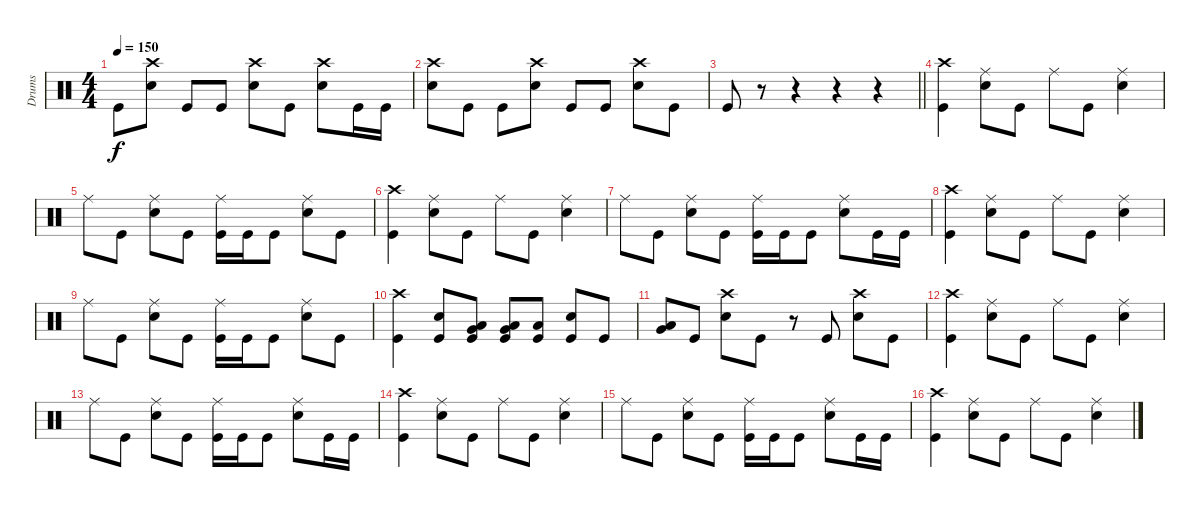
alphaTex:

\track ("Drums" "Drums") {instrument percussion}
\staff {score}
\articulation defaults
\ts (4 4)
\tempo 150
\clef neutral
\ks c "Kick (hit)".8{dy f}
("Snare (hit) 2" "Crash high (hit)").8 "Kick (hit)".8 "Kick (hit)".8 ("Crash high (hit)" "Snare (hit) 2").8 "Kick (hit)".8 ("Snare (hit) 2" "Crash high (hit)").8 "Kick (hit)".16 "Kick (hit)".16 |
("Crash high (hit)" "Snare (hit) 2").8 "Kick (hit)".8 "Kick (hit)".8 ("Snare (hit) 2" "Crash high (hit)").8 "Kick (hit)".8 "Kick (hit)".8 ("Crash high (hit)" "Snare (hit) 2").8 "Kick (hit)".8 |
\barLineRight lightlight "Kick (hit)".8
r.8 r.4 r.4 r.4 |
("Crash high (hit)" "Kick (hit)").4 ("Snare (hit) 2" "Ride (middle)").8 "Kick (hit)".8 "Ride (middle)".8 "Kick (hit)".8 ("Snare (hit) 2" "Ride (middle)").4 |
"Ride (middle)".8 "Kick (hit)".8 ("Snare (hit) 2" "Ride (middle)").8 "Kick (hit)".8 ("Ride (middle)" "Kick (hit)").16 "Kick (hit)".16 "Kick (hit)".8 ("Ride (middle)" "Snare (hit) 2").8 "Kick (hit)".8 |
("Crash high (hit)" "Kick (hit)").4 ("Snare (hit) 2" "Ride (middle)").8 "Kick (hit)".8 "Ride (middle)".8 "Kick (hit)".8 ("Snare (hit) 2" "Ride (middle)").4 |
"Ride (middle)".8 "Kick (hit)".8 ("Snare (hit) 2" "Ride (middle)").8 "Kick (hit)".8 ("Ride (middle)" "Kick (hit)").16 "Kick (hit)".16 "Kick (hit)".8 ("Ride (middle)" "Snare (hit) 2").8 "Kick (hit)".16 "Kick (hit)".16 |
("Crash high (hit)" "Kick (hit)").4 ("Snare (hit) 2" "Ride (middle)").8 "Kick (hit)".8 "Ride (middle)".8 "Kick (hit)".8 ("Snare (hit) 2" "Ride (middle)").4 |
"Ride (middle)".8 "Kick (hit)".8 ("Snare (hit) 2" "Ride (middle)").8 "Kick (hit)".8 ("Ride (middle)" "Kick (hit)").16 "Kick (hit)".16 "Kick (hit)".8 ("Ride (middle)" "Snare (hit) 2").8 "Kick (hit)".8 |
("Crash high (hit)" "Kick (hit)").4 ("Snare (hit) 2" "Kick (hit)").8 ("Very Low Tom (hit)" "Low Tom (hit)" "Kick (hit)").8 ("Low Floor Tom (hit)" "Very Low Tom (hit)" "Kick (hit)").8 ("Low Floor Tom (hit)" "Kick (hit)").8 ("Snare (hit) 2" "Kick (hit)").8 "Kick (hit)".8 |
("Low Tom (hit)" "Very Low Tom (hit)").8 "Kick (hit)".8 ("Snare (hit) 2" "Crash high (hit)").8 "Kick (hit)".8 r.8 "Kick (hit)".8 ("Snare (hit) 2" "Crash high (hit)").8 "Kick (hit)".8 |
("Crash high (hit)" "Kick (hit)").4 ("Snare (hit) 2" "Ride (middle)").8 "Kick (hit)".8 "Ride (middle)".8 "Kick (hit)".8 ("Snare (hit) 2" "Ride (middle)").4 |
"Ride (middle)".8 "Kick (hit)".8 ("Snare (hit) 2" "Ride (middle)").8 "Kick (hit)".8 ("Ride (middle)" "Kick (hit)").16 "Kick (hit)".16 "Kick (hit)".8 ("Ride (middle)" "Snare (hit) 2").8 "Kick (hit)".16 "Kick (hit)".16 |
("Crash high (hit)" "Kick (hit)").4 ("Snare (hit) 2" "Ride (middle)").8 "Kick (hit)".8 "Ride (middle)".8 "Kick (hit)".8 ("Snare (hit) 2" "Ride (middle)").4 |
"Ride (middle)".8 "Kick (hit)".8 ("Snare (hit) 2" "Ride (middle)").8 "Kick (hit)".8 ("Ride (middle)" "Kick (hit)").16 "Kick (hit)".16 "Kick (hit)".8 ("Ride (middle)" "Snare (hit) 2").8 "Kick (hit)".16 "Kick (hit)".16 |
("Crash high (hit)" "Kick (hit)").4 ("Snare (hit) 2" "Ride (middle)").8 "Kick (hit)".8 "Ride (middle)".8 "Kick (hit)".8 ("Snare (hit) 2" "Ride (middle)").4
